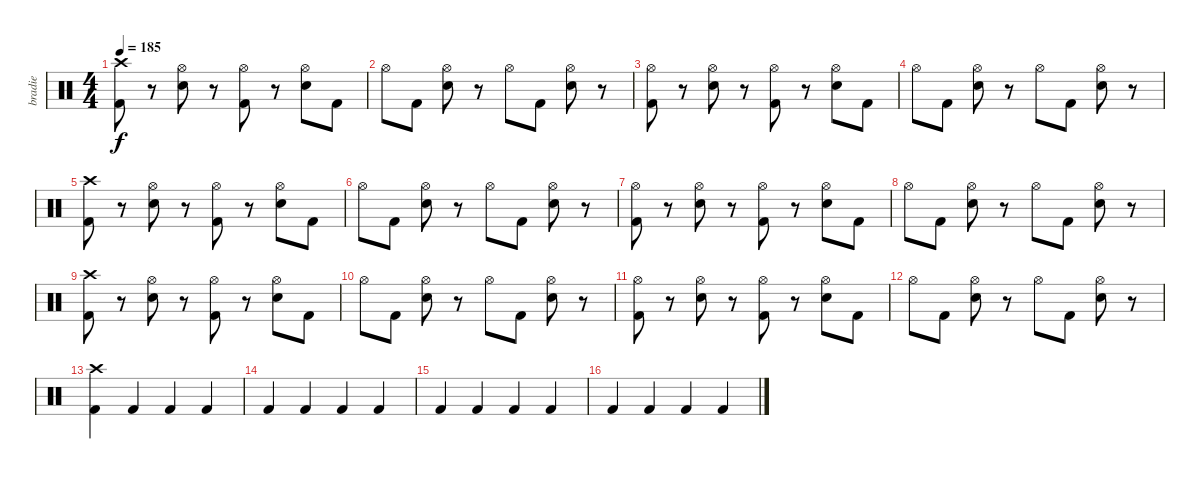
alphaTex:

\track ("bradie" "bradie") {instrument percussion}
\staff {score}
\articulation defaults
\ts (4 4)
\tempo 185
\clef neutral
\ks c
("Crash high (hit)" "Kick (hit) 2").8{dy f} r.8 ("Hi-Hat (open)" "Electric Snare (hit)").8 r.8 ("Hi-Hat (open)" "Kick (hit) 2").8 r.8 ("Hi-Hat (open)" "Electric Snare (hit)").8 "Kick (hit) 2".8 |
"Hi-Hat (open)".8 "Kick (hit) 2".8 ("Hi-Hat (open)" "Electric Snare (hit)").8 r.8 "Hi-Hat (open)".8 "Kick (hit) 2".8 ("Hi-Hat (open)" "Electric Snare (hit)").8 r.8 |
("Hi-Hat (open)" "Kick (hit) 2").8 r.8 ("Hi-Hat (open)" "Electric Snare (hit)").8 r.8 ("Hi-Hat (open)" "Kick (hit) 2").8 r.8 ("Hi-Hat (open)" "Electric Snare (hit)").8 "Kick (hit) 2".8 |
"Hi-Hat (open)".8 "Kick (hit) 2".8 ("Hi-Hat (open)" "Electric Snare (hit)").8 r.8 "Hi-Hat (open)".8 "Kick (hit) 2".8 ("Hi-Hat (open)" "Electric Snare (hit)").8 r.8 |
("Crash high (hit)" "Kick (hit) 2").8 r.8 ("Hi-Hat (open)" "Electric Snare (hit)").8 r.8 ("Hi-Hat (open)" "Kick (hit) 2").8 r.8 ("Hi-Hat (open)" "Electric Snare (hit)").8 "Kick (hit) 2".8 |
"Hi-Hat (open)".8 "Kick (hit) 2".8 ("Hi-Hat (open)" "Electric Snare (hit)").8 r.8 "Hi-Hat (open)".8 "Kick (hit) 2".8 ("Hi-Hat (open)" "Electric Snare (hit)").8 r.8 |
("Hi-Hat (open)" "Kick (hit) 2").8 r.8 ("Hi-Hat (open)" "Electric Snare (hit)").8 r.8 ("Hi-Hat (open)" "Kick (hit) 2").8 r.8 ("Hi-Hat (open)" "Electric Snare (hit)").8 "Kick (hit) 2".8 |
"Hi-Hat (open)".8 "Kick (hit) 2".8 ("Hi-Hat (open)" "Electric Snare (hit)").8 r.8 "Hi-Hat (open)".8 "Kick (hit) 2".8 ("Hi-Hat (open)" "Electric Snare (hit)").8 r.8 |
("Crash high (hit)" "Kick (hit) 2").8 r.8 ("Hi-Hat (open)" "Electric Snare (hit)").8 r.8 ("Hi-Hat (open)" "Kick (hit) 2").8 r.8 ("Hi-Hat (open)" "Electric Snare (hit)").8 "Kick (hit) 2".8 |
"Hi-Hat (open)".8 "Kick (hit) 2".8 ("Hi-Hat (open)" "Electric Snare (hit)").8 r.8 "Hi-Hat (open)".8 "Kick (hit) 2".8 ("Hi-Hat (open)" "Electric Snare (hit)").8 r.8 |
("Hi-Hat (open)" "Kick (hit) 2").8 r.8 ("Hi-Hat (open)" "Electric Snare (hit)").8 r.8 ("Hi-Hat (open)" "Kick (hit) 2").8 r.8 ("Hi-Hat (open)" "Electric Snare (hit)").8 "Kick (hit) 2".8 |
"Hi-Hat (open)".8 "Kick (hit) 2".8 ("Hi-Hat (open)" "Electric Snare (hit)").8 r.8 "Hi-Hat (open)".8 "Kick (hit) 2".8 ("Hi-Hat (open)" "Electric Snare (hit)").8 r.8 |
("Crash high (hit)" "Kick (hit) 2").4 "Kick (hit) 2".4 "Kick (hit) 2".4 "Kick (hit) 2".4 |
"Kick (hit) 2".4 "Kick (hit) 2".4 "Kick (hit) 2".4 "Kick (hit) 2".4 |
"Kick (hit) 2".4 "Kick (hit) 2".4 "Kick (hit) 2".4 "Kick (hit) 2".4 |
"Kick (hit) 2".4 "Kick (hit) 2".4 "Kick (hit) 2".4 "Kick (hit) 2".4
